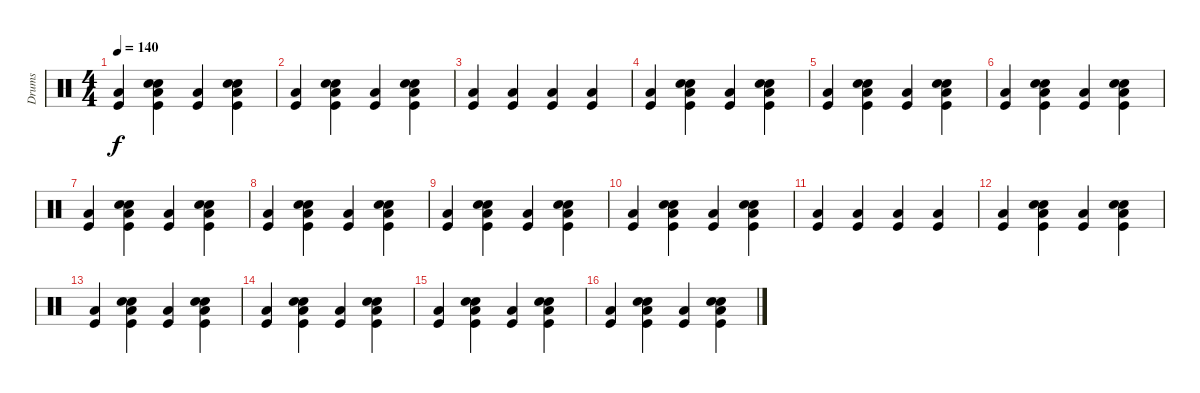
\track ("Drums" "Drums") {instrument percussion}
\staff {score}
\articulation defaults
\ts (4 4)
\tempo 140
\clef neutral
\ks c
("Low Floor Tom (hit)" "Kick (hit)").4{dy f} ("Hand Clap (hit)" "Snare (hit) 2" "Low Floor Tom (hit)" "Kick (hit)").4 ("Low Floor Tom (hit)" "Kick (hit)").4 ("Hand Clap (hit)" "Snare (hit) 2" "Low Floor Tom (hit)" "Kick (hit)").4 |
("Low Floor Tom (hit)" "Kick (hit)").4 ("Hand Clap (hit)" "Snare (hit) 2" "Low Floor Tom (hit)" "Kick (hit)").4 ("Low Floor Tom (hit)" "Kick (hit)").4 ("Hand Clap (hit)" "Snare (hit) 2" "Low Floor Tom (hit)" "Kick (hit)").4 |
("Low Floor Tom (hit)" "Kick (hit)").4 ("Low Floor Tom (hit)" "Kick (hit)").4 ("Low Floor Tom (hit)" "Kick (hit)").4 ("Low Floor Tom (hit)" "Kick (hit)").4 |
("Low Floor Tom (hit)" "Kick (hit)").4 ("Hand Clap (hit)" "Snare (hit) 2" "Low Floor Tom (hit)" "Kick (hit)").4 ("Low Floor Tom (hit)" "Kick (hit)").4 ("Hand Clap (hit)" "Snare (hit) 2" "Low Floor Tom (hit)" "Kick (hit)").4 |
("Low Floor Tom (hit)" "Kick (hit)").4 ("Hand Clap (hit)" "Snare (hit) 2" "Low Floor Tom (hit)" "Kick (hit)").4 ("Low Floor Tom (hit)" "Kick (hit)").4 ("Hand Clap (hit)" "Snare (hit) 2" "Low Floor Tom (hit)" "Kick (hit)").4 |
("Low Floor Tom (hit)" "Kick (hit)").4 ("Hand Clap (hit)" "Snare (hit) 2" "Low Floor Tom (hit)" "Kick (hit)").4 ("Low Floor Tom (hit)" "Kick (hit)").4 ("Hand Clap (hit)" "Snare (hit) 2" "Low Floor Tom (hit)" "Kick (hit)").4 |
("Low Floor Tom (hit)" "Kick (hit)").4 ("Hand Clap (hit)" "Snare (hit) 2" "Low Floor Tom (hit)" "Kick (hit)").4 ("Low Floor Tom (hit)" "Kick (hit)").4 ("Hand Clap (hit)" "Snare (hit) 2" "Low Floor Tom (hit)" "Kick (hit)").4 |
("Low Floor Tom (hit)" "Kick (hit)").4 ("Hand Clap (hit)" "Snare (hit) 2" "Low Floor Tom (hit)" "Kick (hit)").4 ("Low Floor Tom (hit)" "Kick (hit)").4 ("Hand Clap (hit)" "Snare (hit) 2" "Low Floor Tom (hit)" "Kick (hit)").4 |
("Low Floor Tom (hit)" "Kick (hit)").4 ("Hand Clap (hit)" "Snare (hit) 2" "Low Floor Tom (hit)" "Kick (hit)").4 ("Low Floor Tom (hit)" "Kick (hit)").4 ("Hand Clap (hit)" "Snare (hit) 2" "Low Floor Tom (hit)" "Kick (hit)").4 |
("Low Floor Tom (hit)" "Kick (hit)").4 ("Hand Clap (hit)" "Snare (hit) 2" "Low Floor Tom (hit)" "Kick (hit)").4 ("Low Floor Tom (hit)" "Kick (hit)").4 ("Hand Clap (hit)" "Snare (hit) 2" "Low Floor Tom (hit)" "Kick (hit)").4 |
("Low Floor Tom (hit)" "Kick (hit)").4 ("Low Floor Tom (hit)" "Kick (hit)").4 ("Low Floor Tom (hit)" "Kick (hit)").4 ("Low Floor Tom (hit)" "Kick (hit)").4 |
("Low Floor Tom (hit)" "Kick (hit)").4 ("Hand Clap (hit)" "Snare (hit) 2" "Low Floor Tom (hit)" "Kick (hit)").4 ("Low Floor Tom (hit)" "Kick (hit)").4 ("Hand Clap (hit)" "Snare (hit) 2" "Low Floor Tom (hit)" "Kick (hit)").4 |
("Low Floor Tom (hit)" "Kick (hit)").4 ("Hand Clap (hit)" "Snare (hit) 2" "Low Floor Tom (hit)" "Kick (hit)").4 ("Low Floor Tom (hit)" "Kick (hit)").4 ("Hand Clap (hit)" "Snare (hit) 2" "Low Floor Tom (hit)" "Kick (hit)").4 |
("Low Floor Tom (hit)" "Kick (hit)").4 ("Hand Clap (hit)" "Snare (hit) 2" "Low Floor Tom (hit)" "Kick (hit)").4 ("Low Floor Tom (hit)" "Kick (hit)").4 ("Hand Clap (hit)" "Snare (hit) 2" "Low Floor Tom (hit)" "Kick (hit)").4 |
("Low Floor Tom (hit)" "Kick (hit)").4 ("Hand Clap (hit)" "Snare (hit) 2" "Low Floor Tom (hit)" "Kick (hit)").4 ("Low Floor Tom (hit)" "Kick (hit)").4 ("Hand Clap (hit)" "Snare (hit) 2" "Low Floor Tom (hit)" "Kick (hit)").4 |
("Low Floor Tom (hit)" "Kick (hit)").4 ("Hand Clap (hit)" "Snare (hit) 2" "Low Floor Tom (hit)" "Kick (hit)").4 ("Low Floor Tom (hit)" "Kick (hit)").4 ("Hand Clap (hit)" "Snare (hit) 2" "Low Floor Tom (hit)" "Kick (hit)").4
